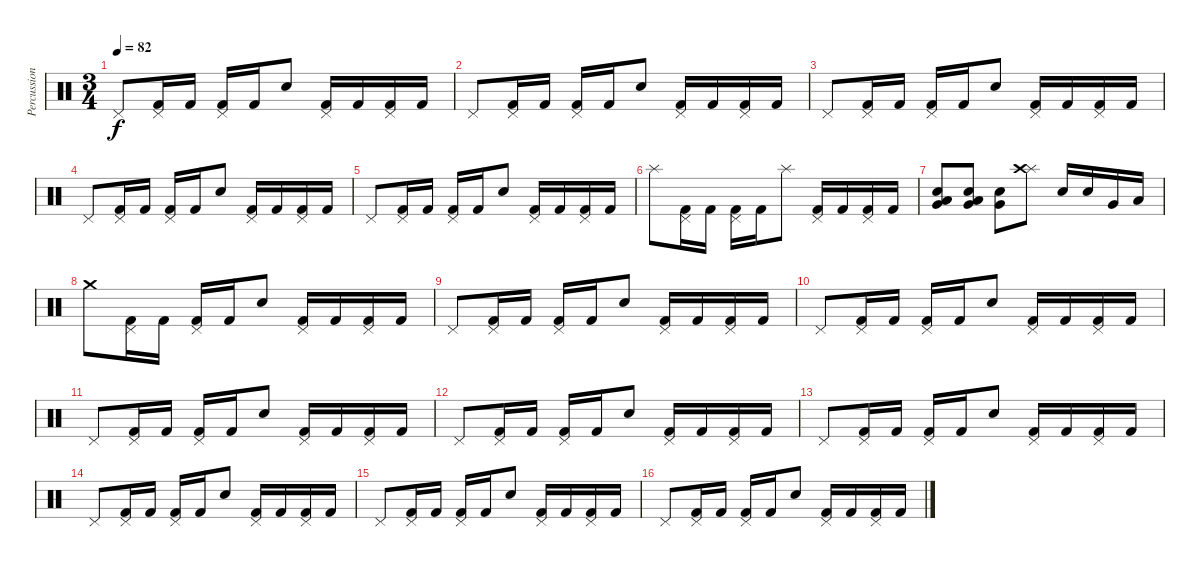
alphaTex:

\track ("Percussion" "Percussion") {instrument percussion}
\staff {score}
\articulation defaults
\ts (3 4)
\tempo 82
\clef neutral
\ks c "Pedal Hi-Hat (hit)".8{dy f}
("Pedal Hi-Hat (hit)" "Kick (hit) 2").16 "Kick (hit) 2".16 ("Pedal Hi-Hat (hit)" "Kick (hit) 2").16 "Kick (hit) 2".16 "Electric Snare (hit)".8 ("Pedal Hi-Hat (hit)" "Kick (hit) 2").16 "Kick (hit) 2".16 ("Pedal Hi-Hat (hit)" "Kick (hit) 2").16 "Kick (hit) 2".16 |
"Pedal Hi-Hat (hit)".8 ("Pedal Hi-Hat (hit)" "Kick (hit) 2").16 "Kick (hit) 2".16 ("Pedal Hi-Hat (hit)" "Kick (hit) 2").16 "Kick (hit) 2".16 "Electric Snare (hit)".8 ("Pedal Hi-Hat (hit)" "Kick (hit) 2").16 "Kick (hit) 2".16 ("Pedal Hi-Hat (hit)" "Kick (hit) 2").16 "Kick (hit) 2".16 |
"Pedal Hi-Hat (hit)".8 ("Pedal Hi-Hat (hit)" "Kick (hit) 2").16 "Kick (hit) 2".16 ("Pedal Hi-Hat (hit)" "Kick (hit) 2").16 "Kick (hit) 2".16 "Electric Snare (hit)".8 ("Pedal Hi-Hat (hit)" "Kick (hit) 2").16 "Kick (hit) 2".16 ("Pedal Hi-Hat (hit)" "Kick (hit) 2").16 "Kick (hit) 2".16 |
"Pedal Hi-Hat (hit)".8 ("Pedal Hi-Hat (hit)" "Kick (hit) 2").16 "Kick (hit) 2".16 ("Pedal Hi-Hat (hit)" "Kick (hit) 2").16 "Kick (hit) 2".16 "Electric Snare (hit)".8 ("Pedal Hi-Hat (hit)" "Kick (hit) 2").16 "Kick (hit) 2".16 ("Pedal Hi-Hat (hit)" "Kick (hit) 2").16 "Kick (hit) 2".16 |
"Pedal Hi-Hat (hit)".8 ("Pedal Hi-Hat (hit)" "Kick (hit) 2").16 "Kick (hit) 2".16 ("Pedal Hi-Hat (hit)" "Kick (hit) 2").16 "Kick (hit) 2".16 "Electric Snare (hit)".8 ("Pedal Hi-Hat (hit)" "Kick (hit) 2").16 "Kick (hit) 2".16 ("Pedal Hi-Hat (hit)" "Kick (hit) 2").16 "Kick (hit) 2".16 |
"Splash (hit)".8 ("Pedal Hi-Hat (hit)" "Kick (hit) 2").16 "Kick (hit) 2".16 ("Pedal Hi-Hat (hit)" "Kick (hit) 2").16 "Kick (hit) 2".16 "Splash (hit)".8 ("Pedal Hi-Hat (hit)" "Kick (hit) 2").16 "Kick (hit) 2".16 ("Pedal Hi-Hat (hit)" "Kick (hit) 2").16 "Kick (hit) 2".16 |
("Electric Snare (hit)" "Low Floor Tom (hit)" "Very Low Tom (hit)").8 ("Electric Snare (hit)" "Low Floor Tom (hit)" "Very Low Tom (hit)").8 ("Electric Snare (hit)" "Very Low Tom (hit)").8 ("Splash (hit)" "Crash high (hit)").8 "Electric Snare (hit)".16 "Electric Snare (hit)".16 "Very Low Tom (hit)".16 "Low Floor Tom (hit)".16 |
"Crash medium (hit)".8 ("Pedal Hi-Hat (hit)" "Kick (hit) 2").16 "Kick (hit) 2".16 ("Pedal Hi-Hat (hit)" "Kick (hit) 2").16 "Kick (hit) 2".16 "Electric Snare (hit)".8 ("Pedal Hi-Hat (hit)" "Kick (hit) 2").16 "Kick (hit) 2".16 ("Pedal Hi-Hat (hit)" "Kick (hit) 2").16 "Kick (hit) 2".16 |
"Pedal Hi-Hat (hit)".8 ("Pedal Hi-Hat (hit)" "Kick (hit) 2").16 "Kick (hit) 2".16 ("Pedal Hi-Hat (hit)" "Kick (hit) 2").16 "Kick (hit) 2".16 "Electric Snare (hit)".8 ("Pedal Hi-Hat (hit)" "Kick (hit) 2").16 "Kick (hit) 2".16 ("Pedal Hi-Hat (hit)" "Kick (hit) 2").16 "Kick (hit) 2".16 |
"Pedal Hi-Hat (hit)".8 ("Pedal Hi-Hat (hit)" "Kick (hit) 2").16 "Kick (hit) 2".16 ("Pedal Hi-Hat (hit)" "Kick (hit) 2").16 "Kick (hit) 2".16 "Electric Snare (hit)".8 ("Pedal Hi-Hat (hit)" "Kick (hit) 2").16 "Kick (hit) 2".16 ("Pedal Hi-Hat (hit)" "Kick (hit) 2").16 "Kick (hit) 2".16 |
"Pedal Hi-Hat (hit)".8 ("Pedal Hi-Hat (hit)" "Kick (hit) 2").16 "Kick (hit) 2".16 ("Pedal Hi-Hat (hit)" "Kick (hit) 2").16 "Kick (hit) 2".16 "Electric Snare (hit)".8 ("Pedal Hi-Hat (hit)" "Kick (hit) 2").16 "Kick (hit) 2".16 ("Pedal Hi-Hat (hit)" "Kick (hit) 2").16 "Kick (hit) 2".16 |
"Pedal Hi-Hat (hit)".8 ("Pedal Hi-Hat (hit)" "Kick (hit) 2").16 "Kick (hit) 2".16 ("Pedal Hi-Hat (hit)" "Kick (hit) 2").16 "Kick (hit) 2".16 "Electric Snare (hit)".8 ("Pedal Hi-Hat (hit)" "Kick (hit) 2").16 "Kick (hit) 2".16 ("Pedal Hi-Hat (hit)" "Kick (hit) 2").16 "Kick (hit) 2".16 |
"Pedal Hi-Hat (hit)".8 ("Pedal Hi-Hat (hit)" "Kick (hit) 2").16 "Kick (hit) 2".16 ("Pedal Hi-Hat (hit)" "Kick (hit) 2").16 "Kick (hit) 2".16 "Electric Snare (hit)".8 ("Pedal Hi-Hat (hit)" "Kick (hit) 2").16 "Kick (hit) 2".16 ("Pedal Hi-Hat (hit)" "Kick (hit) 2").16 "Kick (hit) 2".16 |
"Pedal Hi-Hat (hit)".8 ("Pedal Hi-Hat (hit)" "Kick (hit) 2").16 "Kick (hit) 2".16 ("Pedal Hi-Hat (hit)" "Kick (hit) 2").16 "Kick (hit) 2".16 "Electric Snare (hit)".8 ("Pedal Hi-Hat (hit)" "Kick (hit) 2").16 "Kick (hit) 2".16 ("Pedal Hi-Hat (hit)" "Kick (hit) 2").16 "Kick (hit) 2".16 |
"Pedal Hi-Hat (hit)".8 ("Pedal Hi-Hat (hit)" "Kick (hit) 2").16 "Kick (hit) 2".16 ("Pedal Hi-Hat (hit)" "Kick (hit) 2").16 "Kick (hit) 2".16 "Electric Snare (hit)".8 ("Pedal Hi-Hat (hit)" "Kick (hit) 2").16 "Kick (hit) 2".16 ("Pedal Hi-Hat (hit)" "Kick (hit) 2").16 "Kick (hit) 2".16 |
"Pedal Hi-Hat (hit)".8 ("Pedal Hi-Hat (hit)" "Kick (hit) 2").16 "Kick (hit) 2".16 ("Pedal Hi-Hat (hit)" "Kick (hit) 2").16 "Kick (hit) 2".16 "Electric Snare (hit)".8 ("Pedal Hi-Hat (hit)" "Kick (hit) 2").16 "Kick (hit) 2".16 ("Pedal Hi-Hat (hit)" "Kick (hit) 2").16 "Kick (hit) 2".16
